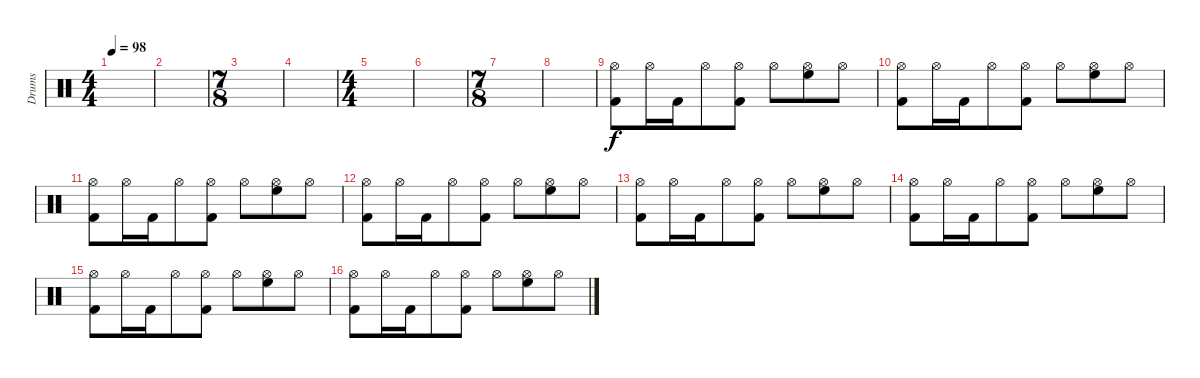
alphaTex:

\track ("Drums" "Drums") {instrument percussion}
\staff {score}
\articulation defaults
\ts (4 4)
\tempo 98
\clef neutral
\ks c
|
|
\ts (7 8)
|
|
\ts (4 4)
|
|
\ts (7 8)
|
|
("Hi-Hat (open)" "Kick (hit) 2").8 "Hi-Hat (open)".16 "Kick (hit) 2".16 "Hi-Hat (open)".8 ("Hi-Hat (open)" "Kick (hit) 2").8 "Hi-Hat (open)".8 ("Hi-Hat (open)" "High Floor Tom (hit)").8 "Hi-Hat (open)".8 |
("Hi-Hat (open)" "Kick (hit) 2").8 "Hi-Hat (open)".16 "Kick (hit) 2".16 "Hi-Hat (open)".8 ("Hi-Hat (open)" "Kick (hit) 2").8 "Hi-Hat (open)".8 ("Hi-Hat (open)" "High Floor Tom (hit)").8 "Hi-Hat (open)".8 |
("Hi-Hat (open)" "Kick (hit) 2").8 "Hi-Hat (open)".16 "Kick (hit) 2".16 "Hi-Hat (open)".8 ("Hi-Hat (open)" "Kick (hit) 2").8 "Hi-Hat (open)".8 ("Hi-Hat (open)" "High Floor Tom (hit)").8 "Hi-Hat (open)".8 |
("Hi-Hat (open)" "Kick (hit) 2").8 "Hi-Hat (open)".16 "Kick (hit) 2".16 "Hi-Hat (open)".8 ("Hi-Hat (open)" "Kick (hit) 2").8 "Hi-Hat (open)".8 ("Hi-Hat (open)" "High Floor Tom (hit)").8 "Hi-Hat (open)".8 |
("Hi-Hat (open)" "Kick (hit) 2").8 "Hi-Hat (open)".16 "Kick (hit) 2".16 "Hi-Hat (open)".8 ("Hi-Hat (open)" "Kick (hit) 2").8 "Hi-Hat (open)".8 ("Hi-Hat (open)" "High Floor Tom (hit)").8 "Hi-Hat (open)".8 |
("Hi-Hat (open)" "Kick (hit) 2").8 "Hi-Hat (open)".16 "Kick (hit) 2".16 "Hi-Hat (open)".8 ("Hi-Hat (open)" "Kick (hit) 2").8 "Hi-Hat (open)".8 ("Hi-Hat (open)" "High Floor Tom (hit)").8 "Hi-Hat (open)".8 |
("Hi-Hat (open)" "Kick (hit) 2").8 "Hi-Hat (open)".16 "Kick (hit) 2".16 "Hi-Hat (open)".8 ("Hi-Hat (open)" "Kick (hit) 2").8 "Hi-Hat (open)".8 ("Hi-Hat (open)" "High Floor Tom (hit)").8 "Hi-Hat (open)".8 |
("Hi-Hat (open)" "Kick (hit) 2").8 "Hi-Hat (open)".16 "Kick (hit) 2".16 "Hi-Hat (open)".8 ("Hi-Hat (open)" "Kick (hit) 2").8 "Hi-Hat (open)".8 ("Hi-Hat (open)" "High Floor Tom (hit)").8 "Hi-Hat (open)".8
